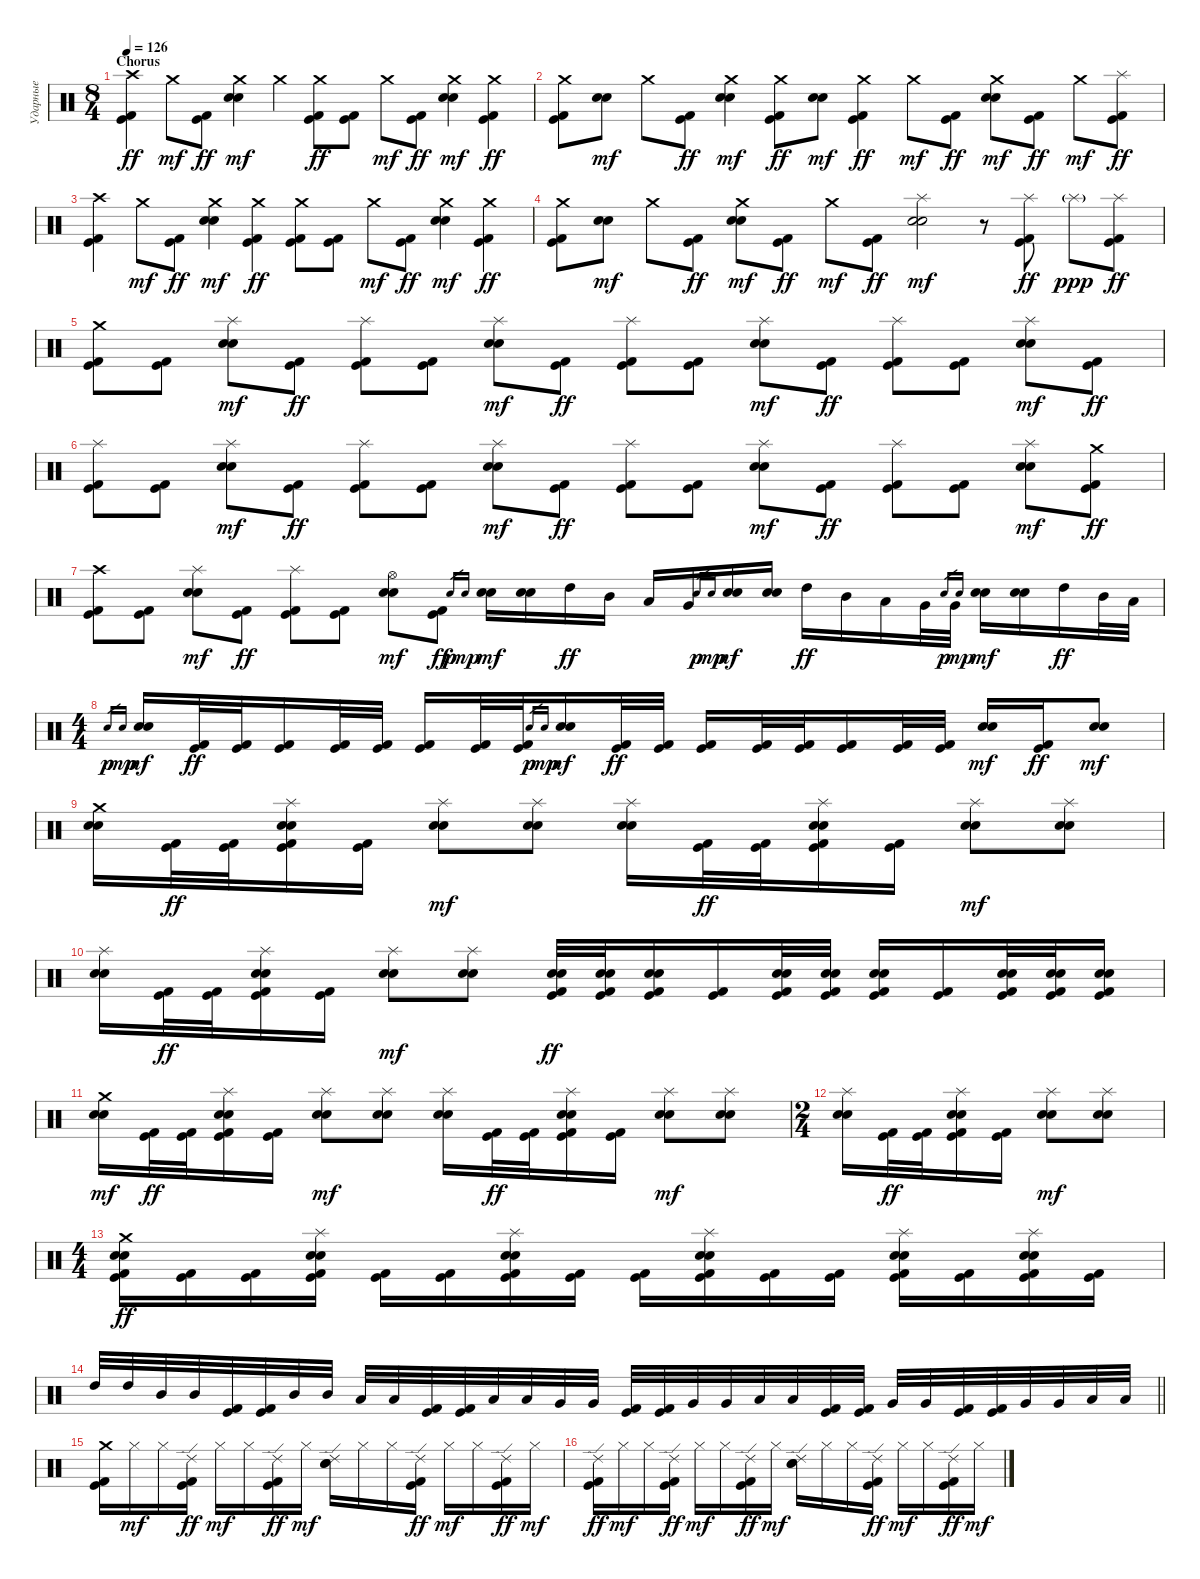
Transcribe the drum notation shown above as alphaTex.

\track ("Ударные" "Ударные") {instrument percussion}
\staff {score}
\articulation defaults
\ts (8 4)
\section ("" "Chorus")
\tempo 126
\clef neutral
\ks c
("Crash high (hit)" "Kick (hit) 2" "Kick (hit)").4{dy ff} "Crash medium (hit)".8{dy mf} ("Kick (hit) 2" "Kick (hit)").8{dy ff} ("Crash medium (hit)" "Snare (hit) 2" "Electric Snare (hit)").4{dy mf} "Crash medium (hit)".4 ("Crash medium (hit)" "Kick (hit) 2" "Kick (hit)").8{dy ff} ("Kick (hit) 2" "Kick (hit)").8 "Crash medium (hit)".8{dy mf} ("Kick (hit) 2" "Kick (hit)").8{dy ff} ("Crash medium (hit)" "Snare (hit) 2" "Electric Snare (hit)").4{dy mf} ("Crash medium (hit)" "Kick (hit) 2" "Kick (hit)").4{dy ff} |
("Crash medium (hit)" "Kick (hit) 2" "Kick (hit)").8 ("Snare (hit) 2" "Electric Snare (hit)").8{dy mf} "Crash medium (hit)".8 ("Kick (hit) 2" "Kick (hit)").8{dy ff} ("Crash medium (hit)" "Snare (hit) 2" "Electric Snare (hit)").4{dy mf} ("Crash medium (hit)" "Kick (hit) 2" "Kick (hit)").8{dy ff} ("Snare (hit) 2" "Electric Snare (hit)").8{dy mf} ("Crash medium (hit)" "Kick (hit) 2" "Kick (hit)").4{dy ff} "Crash medium (hit)".8{dy mf} ("Kick (hit) 2" "Kick (hit)").8{dy ff} ("Crash medium (hit)" "Snare (hit) 2" "Electric Snare (hit)").8{dy mf} ("Kick (hit) 2" "Kick (hit)").8{dy ff} "Crash medium (hit)".8{dy mf} ("Splash (hit)" "Kick (hit) 2" "Kick (hit)").8{dy ff} |
("Crash high (hit)" "Kick (hit) 2" "Kick (hit)").4 "Crash medium (hit)".8{dy mf} ("Kick (hit) 2" "Kick (hit)").8{dy ff} ("Crash medium (hit)" "Snare (hit) 2" "Electric Snare (hit)").4{dy mf} ("Crash medium (hit)" "Kick (hit) 2" "Kick (hit)").4{dy ff} ("Crash medium (hit)" "Kick (hit) 2" "Kick (hit)").8 ("Kick (hit) 2" "Kick (hit)").8 "Crash medium (hit)".8{dy mf} ("Kick (hit) 2" "Kick (hit)").8{dy ff} ("Crash medium (hit)" "Snare (hit) 2" "Electric Snare (hit)").4{dy mf} ("Crash medium (hit)" "Kick (hit) 2" "Kick (hit)").4{dy ff} |
("Crash medium (hit)" "Kick (hit) 2" "Kick (hit)").8 ("Snare (hit) 2" "Electric Snare (hit)").8{dy mf} "Crash medium (hit)".8 ("Kick (hit) 2" "Kick (hit)").8{dy ff} ("Crash medium (hit)" "Snare (hit) 2" "Electric Snare (hit)").8{dy mf} ("Kick (hit) 2" "Kick (hit)").8{dy ff} "Crash medium (hit)".8{dy mf} ("Kick (hit) 2" "Kick (hit)").8{dy ff} ("Splash (hit)" "Snare (hit) 2" "Electric Snare (hit)").2{dy mf} r.8 ("Splash (hit)" "Kick (hit) 2" "Kick (hit)").8{dy ff} "Splash (hit)"{g}.8{dy ppp} ("Splash (hit)" "Kick (hit) 2" "Kick (hit)").8{dy ff} |
("Crash medium (hit)" "Kick (hit) 2" "Kick (hit)").8 ("Kick (hit) 2" "Kick (hit)").8 ("Splash (hit)" "Snare (hit) 2" "Electric Snare (hit)").8{dy mf} ("Kick (hit) 2" "Kick (hit)").8{dy ff} ("Splash (hit)" "Kick (hit) 2" "Kick (hit)").8 ("Kick (hit) 2" "Kick (hit)").8 ("Splash (hit)" "Snare (hit) 2" "Electric Snare (hit)").8{dy mf} ("Kick (hit) 2" "Kick (hit)").8{dy ff} ("Splash (hit)" "Kick (hit) 2" "Kick (hit)").8 ("Kick (hit) 2" "Kick (hit)").8 ("Splash (hit)" "Snare (hit) 2" "Electric Snare (hit)").8{dy mf} ("Kick (hit) 2" "Kick (hit)").8{dy ff} ("Splash (hit)" "Kick (hit) 2" "Kick (hit)").8 ("Kick (hit) 2" "Kick (hit)").8 ("Splash (hit)" "Snare (hit) 2" "Electric Snare (hit)").8{dy mf} ("Kick (hit) 2" "Kick (hit)").8{dy ff} |
("Splash (hit)" "Kick (hit) 2" "Kick (hit)").8 ("Kick (hit) 2" "Kick (hit)").8 ("Splash (hit)" "Snare (hit) 2" "Electric Snare (hit)").8{dy mf} ("Kick (hit) 2" "Kick (hit)").8{dy ff} ("Splash (hit)" "Kick (hit) 2" "Kick (hit)").8 ("Kick (hit) 2" "Kick (hit)").8 ("Splash (hit)" "Snare (hit) 2" "Electric Snare (hit)").8{dy mf} ("Kick (hit) 2" "Kick (hit)").8{dy ff} ("Splash (hit)" "Kick (hit) 2" "Kick (hit)").8 ("Kick (hit) 2" "Kick (hit)").8 ("Splash (hit)" "Snare (hit) 2" "Electric Snare (hit)").8{dy mf} ("Kick (hit) 2" "Kick (hit)").8{dy ff} ("Splash (hit)" "Kick (hit) 2" "Kick (hit)").8 ("Kick (hit) 2" "Kick (hit)").8 ("Splash (hit)" "Snare (hit) 2" "Electric Snare (hit)").8{dy mf} ("Crash medium (hit)" "Kick (hit) 2" "Kick (hit)").8{dy ff} |
("Crash high (hit)" "Kick (hit) 2" "Kick (hit)").8 ("Kick (hit) 2" "Kick (hit)").8 ("Splash (hit)" "Snare (hit) 2" "Electric Snare (hit)").8{dy mf} ("Kick (hit) 2" "Kick (hit)").8{dy ff} ("Splash (hit)" "Kick (hit) 2" "Kick (hit)").8 ("Kick (hit) 2" "Kick (hit)").8 ("Hi-Hat (open)" "Snare (hit) 2" "Electric Snare (hit)").8{dy mf} ("Kick (hit) 2" "Kick (hit)").8{dy ff} "Snare (hit) 2".16{gr dy p} "Electric Snare (hit)".16{gr dy mp} ("Snare (hit) 2" "Electric Snare (hit)").16{dy mf} ("Snare (hit) 2" "Electric Snare (hit)").16 "High Tom (hit)".16{dy ff} "Mid Tom (hit)".16 "Low Tom (hit)".16 "Very Low Tom (hit)".16 "Snare (hit) 2".16{gr dy p} "Electric Snare (hit)".16{gr dy mp} ("Snare (hit) 2" "Electric Snare (hit)").16{dy mf} ("Snare (hit) 2" "Electric Snare (hit)").16 "High Tom (hit)".16{dy ff} "Mid Tom (hit)".16 "Low Tom (hit)".16 "Very Low Tom (hit)".32 "Very Low Tom (hit)".32 "Snare (hit) 2".16{gr dy p} "Electric Snare (hit)".16{gr dy mp} ("Snare (hit) 2" "Electric Snare (hit)").16{dy mf} ("Snare (hit) 2" "Electric Snare (hit)").16 "High Tom (hit)".16{dy ff} "Mid Tom (hit)".32 "Low Tom (hit)".32 |
\ts (4 4)
"Snare (hit) 2".16{gr dy p} "Electric Snare (hit)".16{gr dy mp} ("Snare (hit) 2" "Electric Snare (hit)").16{dy mf} ("Kick (hit) 2" "Kick (hit)").32{dy ff} ("Kick (hit) 2" "Kick (hit)").32 ("Kick (hit) 2" "Kick (hit)").16 ("Kick (hit) 2" "Kick (hit)").32 ("Kick (hit) 2" "Kick (hit)").32 ("Kick (hit) 2" "Kick (hit)").16 ("Kick (hit) 2" "Kick (hit)").32 ("Kick (hit) 2" "Kick (hit)").32 "Snare (hit) 2".16{gr dy p} "Electric Snare (hit)".16{gr dy mp} ("Snare (hit) 2" "Electric Snare (hit)").16{dy mf} ("Kick (hit) 2" "Kick (hit)").32{dy ff} ("Kick (hit) 2" "Kick (hit)").32 ("Kick (hit) 2" "Kick (hit)").16 ("Kick (hit) 2" "Kick (hit)").32 ("Kick (hit) 2" "Kick (hit)").32 ("Kick (hit) 2" "Kick (hit)").16 ("Kick (hit) 2" "Kick (hit)").32 ("Kick (hit) 2" "Kick (hit)").32 ("Snare (hit) 2" "Electric Snare (hit)").16{dy mf} ("Kick (hit) 2" "Kick (hit)").16{dy ff} ("Snare (hit) 2" "Electric Snare (hit)").8{dy mf} |
("Crash medium (hit)" "Snare (hit) 2" "Electric Snare (hit)").16 ("Kick (hit) 2" "Kick (hit)").32{dy ff} ("Kick (hit) 2" "Kick (hit)").32 ("Splash (hit)" "Snare (hit) 2" "Electric Snare (hit)" "Kick (hit) 2" "Kick (hit)").16 ("Kick (hit) 2" "Kick (hit)").16 ("Splash (hit)" "Snare (hit) 2" "Electric Snare (hit)").8{dy mf} ("Splash (hit)" "Snare (hit) 2" "Electric Snare (hit)").8 ("Splash (hit)" "Snare (hit) 2" "Electric Snare (hit)").16 ("Kick (hit) 2" "Kick (hit)").32{dy ff} ("Kick (hit) 2" "Kick (hit)").32 ("Splash (hit)" "Snare (hit) 2" "Electric Snare (hit)" "Kick (hit) 2" "Kick (hit)").16 ("Kick (hit) 2" "Kick (hit)").16 ("Splash (hit)" "Snare (hit) 2" "Electric Snare (hit)").8{dy mf} ("Splash (hit)" "Snare (hit) 2" "Electric Snare (hit)").8 |
("Splash (hit)" "Snare (hit) 2" "Electric Snare (hit)").16 ("Kick (hit) 2" "Kick (hit)").32{dy ff} ("Kick (hit) 2" "Kick (hit)").32 ("Splash (hit)" "Snare (hit) 2" "Electric Snare (hit)" "Kick (hit) 2" "Kick (hit)").16 ("Kick (hit) 2" "Kick (hit)").16 ("Splash (hit)" "Snare (hit) 2" "Electric Snare (hit)").8{dy mf} ("Splash (hit)" "Snare (hit) 2" "Electric Snare (hit)").8 ("Snare (hit) 2" "Electric Snare (hit)" "Kick (hit) 2" "Kick (hit)").32{dy ff} ("Snare (hit) 2" "Electric Snare (hit)" "Kick (hit) 2" "Kick (hit)").32 ("Snare (hit) 2" "Electric Snare (hit)" "Kick (hit) 2" "Kick (hit)").16 ("Kick (hit) 2" "Kick (hit)").16 ("Snare (hit) 2" "Electric Snare (hit)" "Kick (hit) 2" "Kick (hit)").32 ("Snare (hit) 2" "Electric Snare (hit)" "Kick (hit) 2" "Kick (hit)").32 ("Snare (hit) 2" "Electric Snare (hit)" "Kick (hit) 2" "Kick (hit)").16 ("Kick (hit) 2" "Kick (hit)").16 ("Snare (hit) 2" "Electric Snare (hit)" "Kick (hit) 2" "Kick (hit)").32 ("Snare (hit) 2" "Electric Snare (hit)" "Kick (hit) 2" "Kick (hit)").32 ("Snare (hit) 2" "Electric Snare (hit)" "Kick (hit) 2" "Kick (hit)").16 |
("Crash medium (hit)" "Snare (hit) 2" "Electric Snare (hit)").16{dy mf} ("Kick (hit) 2" "Kick (hit)").32{dy ff} ("Kick (hit) 2" "Kick (hit)").32 ("Splash (hit)" "Snare (hit) 2" "Electric Snare (hit)" "Kick (hit) 2" "Kick (hit)").16 ("Kick (hit) 2" "Kick (hit)").16 ("Splash (hit)" "Snare (hit) 2" "Electric Snare (hit)").8{dy mf} ("Splash (hit)" "Snare (hit) 2" "Electric Snare (hit)").8 ("Splash (hit)" "Snare (hit) 2" "Electric Snare (hit)").16 ("Kick (hit) 2" "Kick (hit)").32{dy ff} ("Kick (hit) 2" "Kick (hit)").32 ("Splash (hit)" "Snare (hit) 2" "Electric Snare (hit)" "Kick (hit) 2" "Kick (hit)").16 ("Kick (hit) 2" "Kick (hit)").16 ("Splash (hit)" "Snare (hit) 2" "Electric Snare (hit)").8{dy mf} ("Splash (hit)" "Snare (hit) 2" "Electric Snare (hit)").8 |
\ts (2 4)
("Splash (hit)" "Snare (hit) 2" "Electric Snare (hit)").16 ("Kick (hit) 2" "Kick (hit)").32{dy ff} ("Kick (hit) 2" "Kick (hit)").32 ("Splash (hit)" "Snare (hit) 2" "Electric Snare (hit)" "Kick (hit) 2" "Kick (hit)").16 ("Kick (hit) 2" "Kick (hit)").16 ("Splash (hit)" "Snare (hit) 2" "Electric Snare (hit)").8{dy mf} ("Splash (hit)" "Snare (hit) 2" "Electric Snare (hit)").8 |
\ts (4 4)
("Crash medium (hit)" "Snare (hit) 2" "Electric Snare (hit)" "Kick (hit) 2" "Kick (hit)").16{dy ff} ("Kick (hit) 2" "Kick (hit)").16 ("Kick (hit) 2" "Kick (hit)").16 ("Splash (hit)" "Snare (hit) 2" "Electric Snare (hit)" "Kick (hit) 2" "Kick (hit)").16 ("Kick (hit) 2" "Kick (hit)").16 ("Kick (hit) 2" "Kick (hit)").16 ("Splash (hit)" "Snare (hit) 2" "Electric Snare (hit)" "Kick (hit) 2" "Kick (hit)").16 ("Kick (hit) 2" "Kick (hit)").16 ("Kick (hit) 2" "Kick (hit)").16 ("Splash (hit)" "Snare (hit) 2" "Electric Snare (hit)" "Kick (hit) 2" "Kick (hit)").16 ("Kick (hit) 2" "Kick (hit)").16 ("Kick (hit) 2" "Kick (hit)").16 ("Splash (hit)" "Snare (hit) 2" "Electric Snare (hit)" "Kick (hit) 2" "Kick (hit)").16 ("Kick (hit) 2" "Kick (hit)").16 ("Splash (hit)" "Snare (hit) 2" "Electric Snare (hit)" "Kick (hit) 2" "Kick (hit)").16 ("Kick (hit) 2" "Kick (hit)").16 |
\barLineRight lightlight "High Tom (hit)".32 "High Tom (hit)".32 "Mid Tom (hit)".32 "Mid Tom (hit)".32
("Kick (hit) 2" "Kick (hit)").32 ("Kick (hit) 2" "Kick (hit)").32 "Mid Tom (hit)".32 "Mid Tom (hit)".32 "Low Tom (hit)".32 "Low Tom (hit)".32 ("Kick (hit) 2" "Kick (hit)").32 ("Kick (hit) 2" "Kick (hit)").32 "Low Tom (hit)".32 "Low Tom (hit)".32 "Very Low Tom (hit)".32 "Very Low Tom (hit)".32 ("Kick (hit) 2" "Kick (hit)").32 ("Kick (hit) 2" "Kick (hit)").32 "Very Low Tom (hit)".32 "Very Low Tom (hit)".32 "Low Floor Tom (hit)".32 "Low Floor Tom (hit)".32 ("Kick (hit) 2" "Kick (hit)").32 ("Kick (hit) 2" "Kick (hit)").32 "Very Low Tom (hit)".32 "Very Low Tom (hit)".32 ("Kick (hit) 2" "Kick (hit)").32 ("Kick (hit) 2" "Kick (hit)").32 "Very Low Tom (hit)".32 "Very Low Tom (hit)".32 "Low Floor Tom (hit)".32 "Low Floor Tom (hit)".32 |
("Crash medium (hit)" "Kick (hit)" "Kick (hit) 2").16 "Hi-Hat (closed)".16{dy mf} "Hi-Hat (closed)".16 ("Ride (edge) 2" "Kick (hit)" "Kick (hit) 2").16{dy ff} "Hi-Hat (closed)".16{dy mf} "Hi-Hat (closed)".16 ("Ride (edge) 2" "Kick (hit)" "Kick (hit) 2").16{dy ff} "Hi-Hat (closed)".16{dy mf} ("Ride (edge) 2" "Snare (hit) 2" "Electric Snare (hit)").16 "Hi-Hat (closed)".16 "Hi-Hat (closed)".16 ("Ride (edge) 2" "Kick (hit) 2" "Kick (hit)").16{dy ff} "Hi-Hat (closed)".16{dy mf} "Hi-Hat (closed)".16 ("Ride (edge) 2" "Kick (hit) 2" "Kick (hit)").16{dy ff} "Hi-Hat (closed)".16{dy mf} |
("Ride (edge) 2" "Kick (hit)" "Kick (hit) 2").16{dy ff} "Hi-Hat (closed)".16{dy mf} "Hi-Hat (closed)".16 ("Ride (edge) 2" "Kick (hit)" "Kick (hit) 2").16{dy ff} "Hi-Hat (closed)".16{dy mf} "Hi-Hat (closed)".16 ("Ride (edge) 2" "Kick (hit)" "Kick (hit) 2").16{dy ff} "Hi-Hat (closed)".16{dy mf} ("Ride (edge) 2" "Snare (hit) 2" "Electric Snare (hit)").16 "Hi-Hat (closed)".16 "Hi-Hat (closed)".16 ("Ride (edge) 2" "Kick (hit) 2" "Kick (hit)").16{dy ff} "Hi-Hat (closed)".16{dy mf} "Hi-Hat (closed)".16 ("Ride (edge) 2" "Kick (hit) 2" "Kick (hit)").16{dy ff} "Hi-Hat (closed)".16{dy mf}
